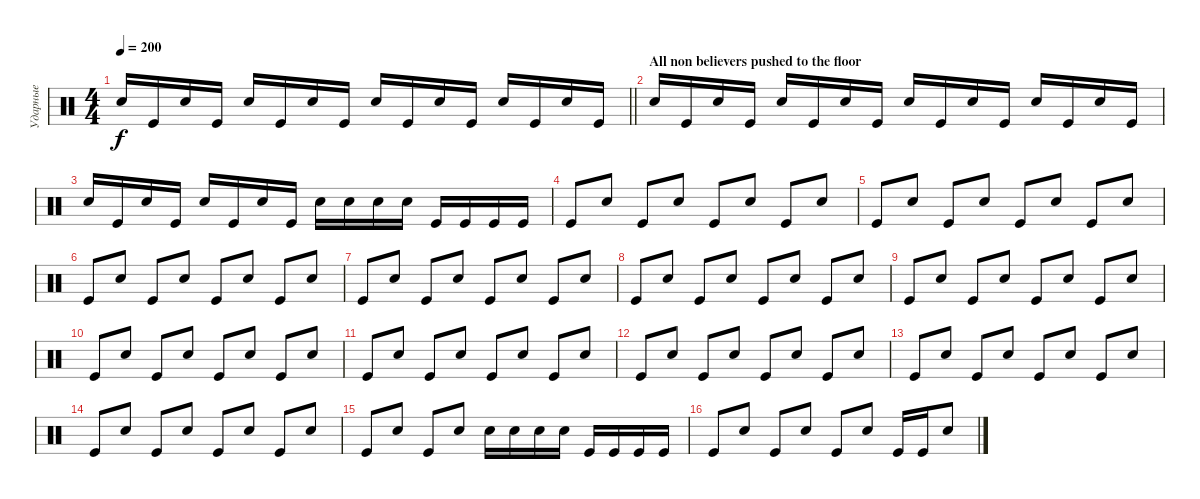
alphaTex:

\track ("Ударные" "Ударные") {instrument percussion}
\staff {score}
\articulation defaults
\ts (4 4)
\tempo 200
\clef neutral
\barLineRight lightlight
\ks c "Snare (hit) 2".16{dy f} "Kick (hit)".16 "Snare (hit) 2".16 "Kick (hit)".16 "Snare (hit) 2".16 "Kick (hit)".16 "Snare (hit) 2".16 "Kick (hit)".16 "Snare (hit) 2".16 "Kick (hit)".16 "Snare (hit) 2".16 "Kick (hit)".16 "Snare (hit) 2".16 "Kick (hit)".16 "Snare (hit) 2".16 "Kick (hit)".16
|
\section ("" "All non believers pushed to the floor")
"Snare (hit) 2".16 "Kick (hit)".16 "Snare (hit) 2".16 "Kick (hit)".16 "Snare (hit) 2".16 "Kick (hit)".16 "Snare (hit) 2".16 "Kick (hit)".16 "Snare (hit) 2".16 "Kick (hit)".16 "Snare (hit) 2".16 "Kick (hit)".16 "Snare (hit) 2".16 "Kick (hit)".16 "Snare (hit) 2".16 "Kick (hit)".16 |
"Snare (hit) 2".16 "Kick (hit)".16 "Snare (hit) 2".16 "Kick (hit)".16 "Snare (hit) 2".16 "Kick (hit)".16 "Snare (hit) 2".16 "Kick (hit)".16 "Snare (hit) 2".16 "Snare (hit) 2".16 "Snare (hit) 2".16 "Snare (hit) 2".16 "Kick (hit)".16 "Kick (hit)".16 "Kick (hit)".16 "Kick (hit)".16 |
"Kick (hit)".8 "Snare (hit) 2".8 "Kick (hit)".8 "Snare (hit) 2".8 "Kick (hit)".8 "Snare (hit) 2".8 "Kick (hit)".8 "Snare (hit) 2".8 |
"Kick (hit)".8 "Snare (hit) 2".8 "Kick (hit)".8 "Snare (hit) 2".8 "Kick (hit)".8 "Snare (hit) 2".8 "Kick (hit)".8 "Snare (hit) 2".8 |
"Kick (hit)".8 "Snare (hit) 2".8 "Kick (hit)".8 "Snare (hit) 2".8 "Kick (hit)".8 "Snare (hit) 2".8 "Kick (hit)".8 "Snare (hit) 2".8 |
"Kick (hit)".8 "Snare (hit) 2".8 "Kick (hit)".8 "Snare (hit) 2".8 "Kick (hit)".8 "Snare (hit) 2".8 "Kick (hit)".8 "Snare (hit) 2".8 |
"Kick (hit)".8 "Snare (hit) 2".8 "Kick (hit)".8 "Snare (hit) 2".8 "Kick (hit)".8 "Snare (hit) 2".8 "Kick (hit)".8 "Snare (hit) 2".8 |
"Kick (hit)".8 "Snare (hit) 2".8 "Kick (hit)".8 "Snare (hit) 2".8 "Kick (hit)".8 "Snare (hit) 2".8 "Kick (hit)".8 "Snare (hit) 2".8 |
"Kick (hit)".8 "Snare (hit) 2".8 "Kick (hit)".8 "Snare (hit) 2".8 "Kick (hit)".8 "Snare (hit) 2".8 "Kick (hit)".8 "Snare (hit) 2".8 |
"Kick (hit)".8 "Snare (hit) 2".8 "Kick (hit)".8 "Snare (hit) 2".8 "Kick (hit)".8 "Snare (hit) 2".8 "Kick (hit)".8 "Snare (hit) 2".8 |
"Kick (hit)".8 "Snare (hit) 2".8 "Kick (hit)".8 "Snare (hit) 2".8 "Kick (hit)".8 "Snare (hit) 2".8 "Kick (hit)".8 "Snare (hit) 2".8 |
"Kick (hit)".8 "Snare (hit) 2".8 "Kick (hit)".8 "Snare (hit) 2".8 "Kick (hit)".8 "Snare (hit) 2".8 "Kick (hit)".8 "Snare (hit) 2".8 |
"Kick (hit)".8 "Snare (hit) 2".8 "Kick (hit)".8 "Snare (hit) 2".8 "Kick (hit)".8 "Snare (hit) 2".8 "Kick (hit)".8 "Snare (hit) 2".8 |
"Kick (hit)".8 "Snare (hit) 2".8 "Kick (hit)".8 "Snare (hit) 2".8 "Snare (hit) 2".16 "Snare (hit) 2".16 "Snare (hit) 2".16 "Snare (hit) 2".16 "Kick (hit)".16 "Kick (hit)".16 "Kick (hit)".16 "Kick (hit)".16 |
"Kick (hit)".8 "Snare (hit) 2".8 "Kick (hit)".8 "Snare (hit) 2".8 "Kick (hit)".8 "Snare (hit) 2".8 "Kick (hit)".16 "Kick (hit)".16 "Snare (hit) 2".8
